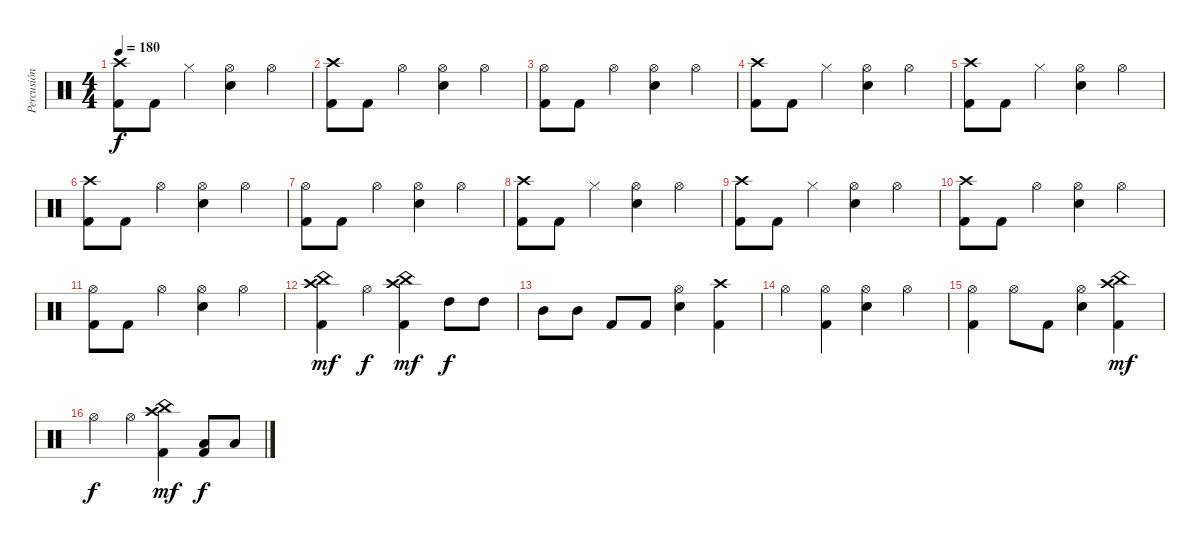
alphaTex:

\track ("Percusión" "Percusión") {instrument percussion}
\staff {score}
\articulation defaults
\ts (4 4)
\tempo 180
\clef neutral
\ks c
("Crash high (hit)" "Kick (hit) 2").8{dy f} "Kick (hit) 2".8 "Hi-Hat (closed)".4 ("Hi-Hat (open)" "Snare (hit) 2").4 "Hi-Hat (open)".4 |
("Crash high (hit)" "Kick (hit) 2").8 "Kick (hit) 2".8 "Hi-Hat (open)".4 ("Hi-Hat (open)" "Snare (hit) 2").4 "Hi-Hat (open)".4 |
("Hi-Hat (open)" "Kick (hit) 2").8 "Kick (hit) 2".8 "Hi-Hat (open)".4 ("Hi-Hat (open)" "Snare (hit) 2").4 "Hi-Hat (open)".4 |
("Crash high (hit)" "Kick (hit) 2").8 "Kick (hit) 2".8 "Hi-Hat (closed)".4 ("Hi-Hat (open)" "Snare (hit) 2").4 "Hi-Hat (open)".4 |
("Crash high (hit)" "Kick (hit) 2").8 "Kick (hit) 2".8 "Hi-Hat (closed)".4 ("Hi-Hat (open)" "Snare (hit) 2").4 "Hi-Hat (open)".4 |
("Crash high (hit)" "Kick (hit) 2").8 "Kick (hit) 2".8 "Hi-Hat (open)".4 ("Hi-Hat (open)" "Snare (hit) 2").4 "Hi-Hat (open)".4 |
("Hi-Hat (open)" "Kick (hit) 2").8 "Kick (hit) 2".8 "Hi-Hat (open)".4 ("Hi-Hat (open)" "Snare (hit) 2").4 "Hi-Hat (open)".4 |
("Crash high (hit)" "Kick (hit) 2").8 "Kick (hit) 2".8 "Hi-Hat (closed)".4 ("Hi-Hat (open)" "Snare (hit) 2").4 "Hi-Hat (open)".4 |
("Crash high (hit)" "Kick (hit) 2").8 "Kick (hit) 2".8 "Hi-Hat (closed)".4 ("Hi-Hat (open)" "Snare (hit) 2").4 "Hi-Hat (open)".4 |
("Crash high (hit)" "Kick (hit) 2").8 "Kick (hit) 2".8 "Hi-Hat (open)".4 ("Hi-Hat (open)" "Snare (hit) 2").4 "Hi-Hat (open)".4 |
("Hi-Hat (open)" "Kick (hit) 2").8 "Kick (hit) 2".8 "Hi-Hat (open)".4 ("Hi-Hat (open)" "Snare (hit) 2").4 "Hi-Hat (open)".4 |
("China (hit)" "Crash high (hit)" "Kick (hit) 2").4{dy mf} "Hi-Hat (open)".4{dy f} ("China (hit)" "Crash high (hit)" "Kick (hit) 2").4{dy mf} "High Tom (hit)".8{dy f} "High Tom (hit)".8 |
"Mid Tom (hit)".8 "Mid Tom (hit)".8 "Kick (hit) 2".8 "Kick (hit) 2".8 ("Hi-Hat (open)" "Snare (hit) 2").4 ("Crash high (hit)" "Kick (hit) 2").4 |
"Hi-Hat (open)".4 ("Hi-Hat (open)" "Kick (hit) 2").4 ("Hi-Hat (open)" "Snare (hit) 2").4 "Hi-Hat (open)".4 |
("Hi-Hat (open)" "Kick (hit) 2").4 "Hi-Hat (open)".8 "Kick (hit) 2".8 ("Hi-Hat (open)" "Snare (hit) 2").4 ("China (hit)" "Crash high (hit)" "Kick (hit) 2").4{dy mf} |
"Hi-Hat (open)".4{dy f} "Hi-Hat (open)".4 ("China (hit)" "Crash high (hit)" "Kick (hit) 2").4{dy mf} ("Low Tom (hit)" "Kick (hit) 2").8{dy f} "Low Tom (hit)".8
